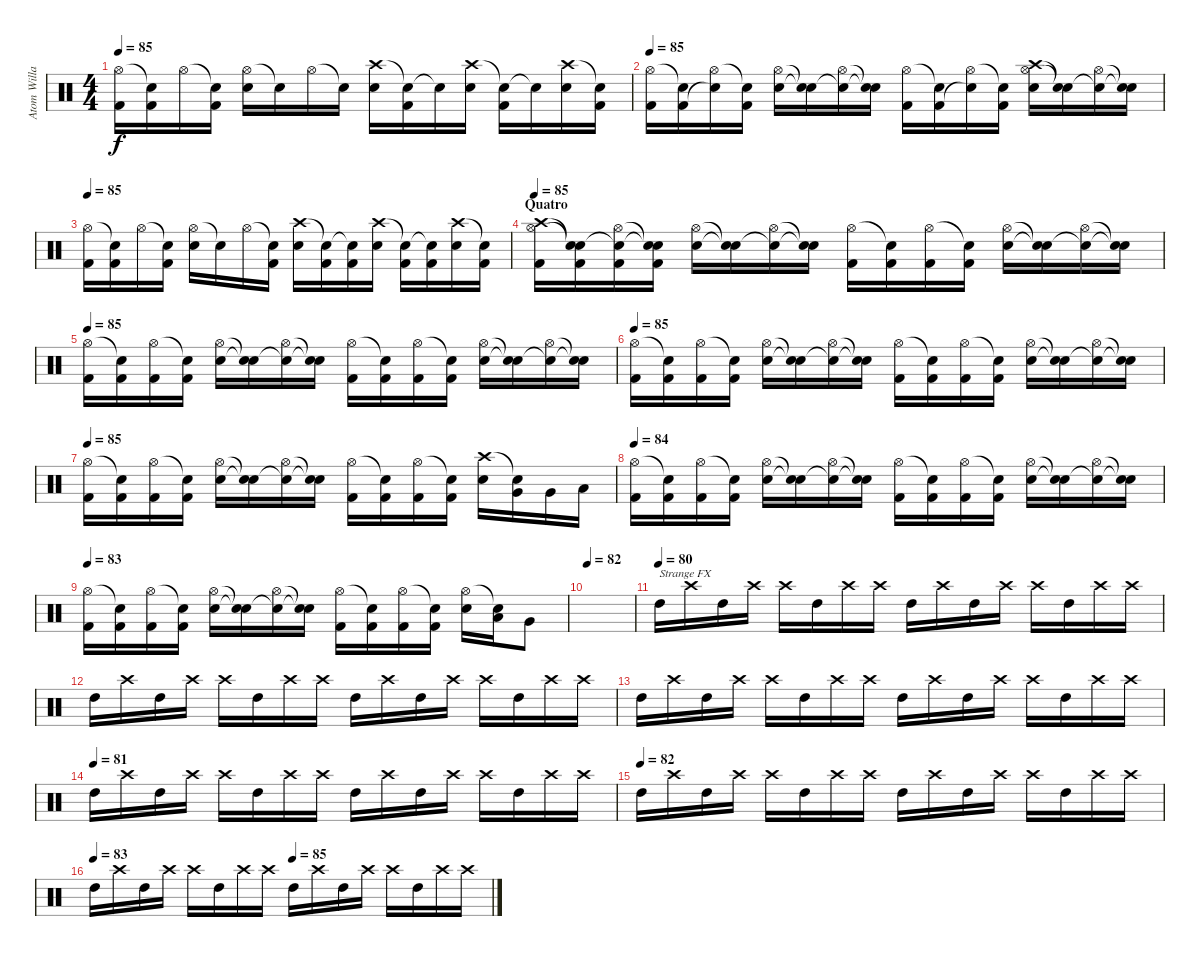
\track ("Atom Willard (Drums)" "Atom Willa") {instrument percussion}
\staff {score}
\articulation defaults
\ts (4 4)
\tempo 85
\clef neutral
\ks c
("Hi-Hat (open)" "Kick (hit) 2").16{dy f} ("Snare (hit)"{t} "Kick (hit) 2").16 "Hi-Hat (open)".16 ("Snare (hit)"{t} "Kick (hit) 2").16 ("Hi-Hat (open)" "Electric Snare (hit)").16 "Snare (hit)"{t}.16 "Hi-Hat (open)".16 "Snare (hit)"{t}.16 ("Crash high (hit)" "Electric Snare (hit)").16 ("Snare (hit)"{t} "Kick (hit) 2").16 "Snare (hit)"{t}.16 ("Crash high (hit)" "Electric Snare (hit)").16 ("Snare (hit)"{t} "Kick (hit) 2").16 "Snare (hit)"{t}.16 ("Crash high (hit)" "Electric Snare (hit)").16 ("Snare (hit)"{t} "Kick (hit) 2").16 |
\tempo 85
("Hi-Hat (open)" "Kick (hit) 2").16 ("Snare (hit)"{t} "Kick (hit) 2").16 ("Hi-Hat (open)" "Snare (hit)"{t}).16 ("Snare (hit)"{t} "Kick (hit) 2").16 ("Hi-Hat (open)" "Electric Snare (hit)").16 ("Snare (hit)"{t} "Snare (hit)"{t}).16 ("Hi-Hat (open)" "Snare (hit)"{t}).16 ("Snare (hit)"{t} "Snare (hit)"{t}).16 ("Hi-Hat (open)" "Kick (hit) 2").16 ("Snare (hit)"{t} "Kick (hit) 2").16 ("Hi-Hat (open)" "Snare (hit)"{t}).16 ("Snare (hit)"{t} "Kick (hit) 2").16 ("Crash high (hit)" "Hi-Hat (open)" "Electric Snare (hit)").16 ("Snare (hit)"{t} "Snare (hit)"{t}).16 ("Hi-Hat (open)" "Snare (hit)"{t}).16 ("Snare (hit)"{t} "Snare (hit)"{t}).16 |
\tempo 85
("Hi-Hat (open)" "Kick (hit) 2").16 ("Snare (hit)"{t} "Kick (hit) 2").16 "Hi-Hat (open)".16 ("Snare (hit)"{t} "Kick (hit) 2").16 ("Hi-Hat (open)" "Electric Snare (hit)").16 "Snare (hit)"{t}.16 "Hi-Hat (open)".16 ("Snare (hit)"{t} "Kick (hit) 2").16 ("Crash high (hit)" "Electric Snare (hit)").16 ("Snare (hit)"{t} "Kick (hit) 2").16 ("Snare (hit)"{t} "Kick (hit) 2").16 ("Crash high (hit)" "Electric Snare (hit)").16 ("Snare (hit)"{t} "Kick (hit) 2").16 ("Snare (hit)"{t} "Kick (hit) 2").16 ("Crash high (hit)" "Electric Snare (hit)").16 ("Snare (hit)"{t} "Kick (hit) 2").16 |
\section ("" "Quatro")
\tempo 85
("Crash high (hit)" "Hi-Hat (open)" "Kick (hit) 2").16 ("Snare (hit)"{t} "Snare (hit)"{t} "Kick (hit) 2").16 ("Snare (hit)"{t} "Hi-Hat (open)" "Kick (hit) 2").16 ("Snare (hit)"{t} "Snare (hit)"{t} "Kick (hit) 2").16 ("Hi-Hat (open)" "Electric Snare (hit)").16 ("Snare (hit)"{t} "Snare (hit)"{t}).16 ("Hi-Hat (open)" "Snare (hit)"{t}).16 ("Snare (hit)"{t} "Snare (hit)"{t}).16 ("Hi-Hat (open)" "Kick (hit) 2").16 ("Snare (hit)"{t} "Kick (hit) 2").16 ("Hi-Hat (open)" "Kick (hit) 2").16 ("Snare (hit)"{t} "Kick (hit) 2").16 ("Hi-Hat (open)" "Electric Snare (hit)").16 ("Snare (hit)"{t} "Snare (hit)"{t}).16 ("Hi-Hat (open)" "Snare (hit)"{t}).16 ("Snare (hit)"{t} "Snare (hit)"{t}).16 |
\tempo 85
("Hi-Hat (open)" "Kick (hit) 2").16 ("Snare (hit)"{t} "Kick (hit) 2").16 ("Hi-Hat (open)" "Kick (hit) 2").16 ("Snare (hit)"{t} "Kick (hit) 2").16 ("Hi-Hat (open)" "Electric Snare (hit)").16 ("Snare (hit)"{t} "Snare (hit)"{t}).16 ("Hi-Hat (open)" "Snare (hit)"{t}).16 ("Snare (hit)"{t} "Snare (hit)"{t}).16 ("Hi-Hat (open)" "Kick (hit) 2").16 ("Snare (hit)"{t} "Kick (hit) 2").16 ("Hi-Hat (open)" "Kick (hit) 2").16 ("Snare (hit)"{t} "Kick (hit) 2").16 ("Hi-Hat (open)" "Electric Snare (hit)").16 ("Snare (hit)"{t} "Snare (hit)"{t}).16 ("Hi-Hat (open)" "Snare (hit)"{t}).16 ("Snare (hit)"{t} "Snare (hit)"{t}).16 |
\tempo 85
("Hi-Hat (open)" "Kick (hit) 2").16 ("Snare (hit)"{t} "Kick (hit) 2").16 ("Hi-Hat (open)" "Kick (hit) 2").16 ("Snare (hit)"{t} "Kick (hit) 2").16 ("Hi-Hat (open)" "Electric Snare (hit)").16 ("Snare (hit)"{t} "Snare (hit)"{t}).16 ("Hi-Hat (open)" "Snare (hit)"{t}).16 ("Snare (hit)"{t} "Snare (hit)"{t}).16 ("Hi-Hat (open)" "Kick (hit) 2").16 ("Snare (hit)"{t} "Kick (hit) 2").16 ("Hi-Hat (open)" "Kick (hit) 2").16 ("Snare (hit)"{t} "Kick (hit) 2").16 ("Hi-Hat (open)" "Electric Snare (hit)").16 ("Snare (hit)"{t} "Snare (hit)"{t}).16 ("Hi-Hat (open)" "Snare (hit)"{t}).16 ("Snare (hit)"{t} "Snare (hit)"{t}).16 |
\tempo 85
("Hi-Hat (open)" "Kick (hit) 2").16 ("Snare (hit)"{t} "Kick (hit) 2").16 ("Hi-Hat (open)" "Kick (hit) 2").16 ("Snare (hit)"{t} "Kick (hit) 2").16 ("Hi-Hat (open)" "Electric Snare (hit)").16 ("Snare (hit)"{t} "Snare (hit)"{t}).16 ("Hi-Hat (open)" "Snare (hit)"{t}).16 ("Snare (hit)"{t} "Snare (hit)"{t}).16 ("Hi-Hat (open)" "Kick (hit) 2").16 ("Snare (hit)"{t} "Kick (hit) 2").16 ("Hi-Hat (open)" "Kick (hit) 2").16 ("Snare (hit)"{t} "Kick (hit) 2").16 ("Crash high (hit)" "Electric Snare (hit)").16 ("Snare (hit)"{t} "Very Low Tom (hit)").16 "Very Low Tom (hit)".16 "Low Floor Tom (hit)".16 |
\tempo 84
("Hi-Hat (open)" "Kick (hit) 2").16 ("Snare (hit)"{t} "Kick (hit) 2").16 ("Hi-Hat (open)" "Kick (hit) 2").16 ("Snare (hit)"{t} "Kick (hit) 2").16 ("Hi-Hat (open)" "Electric Snare (hit)").16 ("Snare (hit)"{t} "Snare (hit)"{t}).16 ("Hi-Hat (open)" "Snare (hit)"{t}).16 ("Snare (hit)"{t} "Snare (hit)"{t}).16 ("Hi-Hat (open)" "Kick (hit) 2").16 ("Snare (hit)"{t} "Kick (hit) 2").16 ("Hi-Hat (open)" "Kick (hit) 2").16 ("Snare (hit)"{t} "Kick (hit) 2").16 ("Hi-Hat (open)" "Electric Snare (hit)").16 ("Snare (hit)"{t} "Snare (hit)"{t}).16 ("Hi-Hat (open)" "Snare (hit)"{t}).16 ("Snare (hit)"{t} "Snare (hit)"{t}).16 |
\tempo 83
("Hi-Hat (open)" "Kick (hit) 2").16 ("Snare (hit)"{t} "Kick (hit) 2").16 ("Hi-Hat (open)" "Kick (hit) 2").16 ("Snare (hit)"{t} "Kick (hit) 2").16 ("Hi-Hat (open)" "Electric Snare (hit)").16 ("Snare (hit)"{t} "Snare (hit)"{t}).16 ("Hi-Hat (open)" "Snare (hit)"{t}).16 ("Snare (hit)"{t} "Snare (hit)"{t}).16 ("Hi-Hat (open)" "Kick (hit) 2").16 ("Snare (hit)"{t} "Kick (hit) 2").16 ("Hi-Hat (open)" "Kick (hit) 2").16 ("Snare (hit)"{t} "Kick (hit) 2").16 ("Hi-Hat (open)" "Electric Snare (hit)").16 ("Snare (hit)"{t} "Low Tom (hit)").16 "Very Low Tom (hit)".8 |
\tempo 82
|
\tempo (80)
"High Tom (hit)".16{txt "Strange FX" volume 3} "Crash high (hit)".16 "High Tom (hit)".16 "Crash high (hit)".16 "Crash high (hit)".16{volume 4} "High Tom (hit)".16 "Crash high (hit)".16 "Crash high (hit)".16 "High Tom (hit)".16{volume 5} "Crash high (hit)".16 "High Tom (hit)".16 "Crash high (hit)".16 "Crash high (hit)".16{volume 6} "High Tom (hit)".16 "Crash high (hit)".16 "Crash high (hit)".16 |
"High Tom (hit)".16{volume 7} "Crash high (hit)".16 "High Tom (hit)".16 "Crash high (hit)".16 "Crash high (hit)".16{volume 8} "High Tom (hit)".16 "Crash high (hit)".16 "Crash high (hit)".16 "High Tom (hit)".16{volume 9} "Crash high (hit)".16 "High Tom (hit)".16 "Crash high (hit)".16 "Crash high (hit)".16{volume 10} "High Tom (hit)".16 "Crash high (hit)".16 "Crash high (hit)".16 |
"High Tom (hit)".16{volume 11} "Crash high (hit)".16 "High Tom (hit)".16 "Crash high (hit)".16 "Crash high (hit)".16{volume 12} "High Tom (hit)".16 "Crash high (hit)".16 "Crash high (hit)".16 "High Tom (hit)".16{volume 13} "Crash high (hit)".16 "High Tom (hit)".16 "Crash high (hit)".16 "Crash high (hit)".16{volume 14} "High Tom (hit)".16 "Crash high (hit)".16 "Crash high (hit)".16 |
\tempo (81)
"High Tom (hit)".16{volume 15} "Crash high (hit)".16 "High Tom (hit)".16 "Crash high (hit)".16 "Crash high (hit)".16{volume 16} "High Tom (hit)".16 "Crash high (hit)".16 "Crash high (hit)".16 "High Tom (hit)".16 "Crash high (hit)".16 "High Tom (hit)".16 "Crash high (hit)".16 "Crash high (hit)".16 "High Tom (hit)".16 "Crash high (hit)".16 "Crash high (hit)".16 |
\tempo (82)
"High Tom (hit)".16{volume 16} "Crash high (hit)".16 "High Tom (hit)".16 "Crash high (hit)".16 "Crash high (hit)".16{volume 16} "High Tom (hit)".16 "Crash high (hit)".16 "Crash high (hit)".16 "High Tom (hit)".16 "Crash high (hit)".16 "High Tom (hit)".16 "Crash high (hit)".16 "Crash high (hit)".16 "High Tom (hit)".16 "Crash high (hit)".16 "Crash high (hit)".16 |
\tempo 83
\tempo (85 0.5)
"High Tom (hit)".16{volume 16} "Crash high (hit)".16 "High Tom (hit)".16 "Crash high (hit)".16 "Crash high (hit)".16{volume 16} "High Tom (hit)".16 "Crash high (hit)".16 "Crash high (hit)".16 "High Tom (hit)".16 "Crash high (hit)".16 "High Tom (hit)".16 "Crash high (hit)".16 "Crash high (hit)".16 "High Tom (hit)".16 "Crash high (hit)".16 "Crash high (hit)".16
